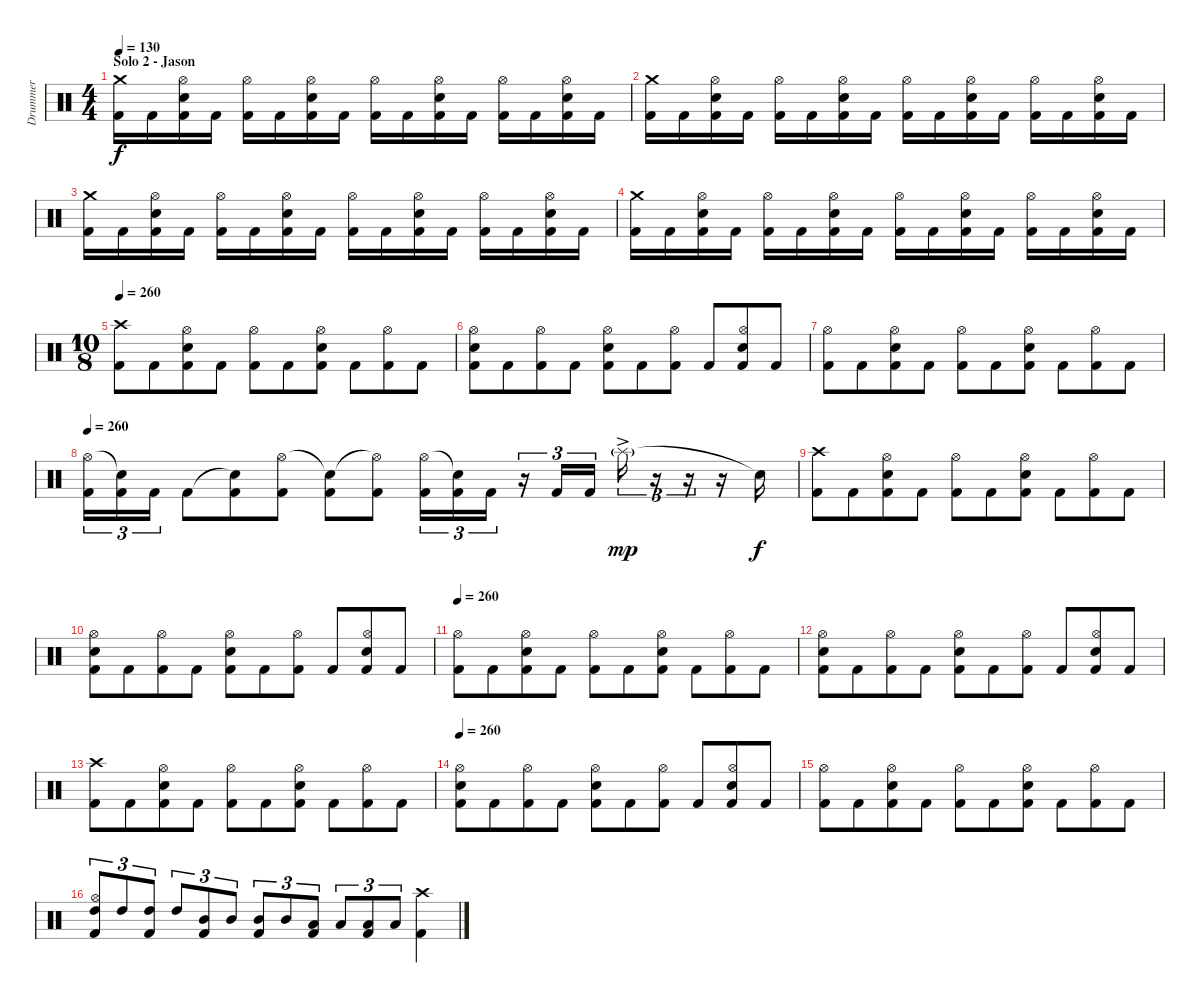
\track ("Drummer" "Drummer") {instrument percussion}
\staff {score}
\articulation defaults
\ts (4 4)
\section ("" "Solo 2 - Jason")
\tempo 130
\clef neutral
\ks c
("Crash medium (hit)" "Kick (hit) 2").16{dy f} "Kick (hit) 2".16 ("Hi-Hat (open)" "Snare (hit) 2" "Kick (hit) 2").16 "Kick (hit) 2".16 ("Hi-Hat (open)" "Kick (hit) 2").16 "Kick (hit) 2".16 ("Hi-Hat (open)" "Snare (hit) 2" "Kick (hit) 2").16 "Kick (hit) 2".16 ("Hi-Hat (open)" "Kick (hit) 2").16 "Kick (hit) 2".16 ("Hi-Hat (open)" "Snare (hit) 2" "Kick (hit) 2").16 "Kick (hit) 2".16 ("Hi-Hat (open)" "Kick (hit) 2").16 "Kick (hit) 2".16 ("Hi-Hat (open)" "Snare (hit) 2" "Kick (hit) 2").16 "Kick (hit) 2".16 |
("Crash medium (hit)" "Kick (hit) 2").16 "Kick (hit) 2".16 ("Hi-Hat (open)" "Snare (hit) 2" "Kick (hit) 2").16 "Kick (hit) 2".16 ("Hi-Hat (open)" "Kick (hit) 2").16 "Kick (hit) 2".16 ("Hi-Hat (open)" "Snare (hit) 2" "Kick (hit) 2").16 "Kick (hit) 2".16 ("Hi-Hat (open)" "Kick (hit) 2").16 "Kick (hit) 2".16 ("Hi-Hat (open)" "Snare (hit) 2" "Kick (hit) 2").16 "Kick (hit) 2".16 ("Hi-Hat (open)" "Kick (hit) 2").16 "Kick (hit) 2".16 ("Hi-Hat (open)" "Snare (hit) 2" "Kick (hit) 2").16 "Kick (hit) 2".16 |
("Crash medium (hit)" "Kick (hit) 2").16 "Kick (hit) 2".16 ("Hi-Hat (open)" "Snare (hit) 2" "Kick (hit) 2").16 "Kick (hit) 2".16 ("Hi-Hat (open)" "Kick (hit) 2").16 "Kick (hit) 2".16 ("Hi-Hat (open)" "Snare (hit) 2" "Kick (hit) 2").16 "Kick (hit) 2".16 ("Hi-Hat (open)" "Kick (hit) 2").16 "Kick (hit) 2".16 ("Hi-Hat (open)" "Snare (hit) 2" "Kick (hit) 2").16 "Kick (hit) 2".16 ("Hi-Hat (open)" "Kick (hit) 2").16 "Kick (hit) 2".16 ("Hi-Hat (open)" "Snare (hit) 2" "Kick (hit) 2").16 "Kick (hit) 2".16 |
("Crash medium (hit)" "Kick (hit) 2").16 "Kick (hit) 2".16 ("Hi-Hat (open)" "Snare (hit) 2" "Kick (hit) 2").16 "Kick (hit) 2".16 ("Hi-Hat (open)" "Kick (hit) 2").16 "Kick (hit) 2".16 ("Hi-Hat (open)" "Snare (hit) 2" "Kick (hit) 2").16 "Kick (hit) 2".16 ("Hi-Hat (open)" "Kick (hit) 2").16 "Kick (hit) 2".16 ("Hi-Hat (open)" "Snare (hit) 2" "Kick (hit) 2").16 "Kick (hit) 2".16 ("Hi-Hat (open)" "Kick (hit) 2").16 "Kick (hit) 2".16 ("Hi-Hat (open)" "Snare (hit) 2" "Kick (hit) 2").16 "Kick (hit) 2".16 |
\ts (10 8)
\tempo 260
("Crash high (hit)" "Kick (hit) 2").8 "Kick (hit) 2".8 ("Hi-Hat (open)" "Snare (hit) 2" "Kick (hit) 2").8 "Kick (hit) 2".8 ("Hi-Hat (open)" "Kick (hit) 2").8 "Kick (hit) 2".8 ("Hi-Hat (open)" "Snare (hit) 2" "Kick (hit) 2").8 "Kick (hit) 2".8 ("Hi-Hat (open)" "Kick (hit) 2").8 "Kick (hit) 2".8 |
("Hi-Hat (open)" "Snare (hit) 2" "Kick (hit) 2").8 "Kick (hit) 2".8 ("Hi-Hat (open)" "Kick (hit) 2").8 "Kick (hit) 2".8 ("Hi-Hat (open)" "Snare (hit) 2" "Kick (hit) 2").8 "Kick (hit) 2".8 ("Hi-Hat (open)" "Kick (hit) 2").8 "Kick (hit) 2".8 ("Hi-Hat (open)" "Snare (hit) 2" "Kick (hit) 2").8 "Kick (hit) 2".8 |
("Hi-Hat (open)" "Kick (hit) 2").8 "Kick (hit) 2".8 ("Hi-Hat (open)" "Snare (hit) 2" "Kick (hit) 2").8 "Kick (hit) 2".8 ("Hi-Hat (open)" "Kick (hit) 2").8 "Kick (hit) 2".8 ("Hi-Hat (open)" "Snare (hit) 2" "Kick (hit) 2").8 "Kick (hit) 2".8 ("Hi-Hat (open)" "Kick (hit) 2").8 "Kick (hit) 2".8 |
\tempo 260
("Hi-Hat (open)" "Kick (hit) 2").16{tu (3 2)} ("Snare (hit)"{t} "Kick (hit) 2").16{tu (3 2)} "Kick (hit) 2".16{tu (3 2)} "Kick (hit) 2".8 ("Snare (hit)"{t} "Kick (hit) 2").8 ("Hi-Hat (open)" "Kick (hit) 2").8 ("Snare (hit)"{t} "Kick (hit) 2").8 ("Hi-Hat (open)"{t} "Kick (hit) 2").8 ("Hi-Hat (open)" "Kick (hit) 2").16{tu (3 2)} ("Snare (hit)"{t} "Kick (hit) 2").16{tu (3 2)} "Kick (hit) 2".16{tu (3 2)} r.16{tu (3 2)} "Kick (hit) 2".16{tu (3 2)} "Kick (hit) 2".16{tu (3 2)} "Splash (hit)"{g ac}.16{tu (3 2) dy mp} r.16{tu (3 2)} r.16{tu (3 2)} r.16 "Snare (hit)"{t}.16{dy f} |
("Crash high (hit)" "Kick (hit) 2").8 "Kick (hit) 2".8 ("Hi-Hat (open)" "Snare (hit) 2" "Kick (hit) 2").8 "Kick (hit) 2".8 ("Hi-Hat (open)" "Kick (hit) 2").8 "Kick (hit) 2".8 ("Hi-Hat (open)" "Snare (hit) 2" "Kick (hit) 2").8 "Kick (hit) 2".8 ("Hi-Hat (open)" "Kick (hit) 2").8 "Kick (hit) 2".8 |
("Hi-Hat (open)" "Snare (hit) 2" "Kick (hit) 2").8 "Kick (hit) 2".8 ("Hi-Hat (open)" "Kick (hit) 2").8 "Kick (hit) 2".8 ("Hi-Hat (open)" "Snare (hit) 2" "Kick (hit) 2").8 "Kick (hit) 2".8 ("Hi-Hat (open)" "Kick (hit) 2").8 "Kick (hit) 2".8 ("Hi-Hat (open)" "Snare (hit) 2" "Kick (hit) 2").8 "Kick (hit) 2".8 |
\tempo 260
("Hi-Hat (open)" "Kick (hit) 2").8 "Kick (hit) 2".8 ("Hi-Hat (open)" "Snare (hit) 2" "Kick (hit) 2").8 "Kick (hit) 2".8 ("Hi-Hat (open)" "Kick (hit) 2").8 "Kick (hit) 2".8 ("Hi-Hat (open)" "Snare (hit) 2" "Kick (hit) 2").8 "Kick (hit) 2".8 ("Hi-Hat (open)" "Kick (hit) 2").8 "Kick (hit) 2".8 |
("Hi-Hat (open)" "Snare (hit) 2" "Kick (hit) 2").8 "Kick (hit) 2".8 ("Hi-Hat (open)" "Kick (hit) 2").8 "Kick (hit) 2".8 ("Hi-Hat (open)" "Snare (hit) 2" "Kick (hit) 2").8 "Kick (hit) 2".8 ("Hi-Hat (open)" "Kick (hit) 2").8 "Kick (hit) 2".8 ("Hi-Hat (open)" "Snare (hit) 2" "Kick (hit) 2").8 "Kick (hit) 2".8 |
("Crash high (hit)" "Kick (hit) 2").8 "Kick (hit) 2".8 ("Hi-Hat (open)" "Snare (hit) 2" "Kick (hit) 2").8 "Kick (hit) 2".8 ("Hi-Hat (open)" "Kick (hit) 2").8 "Kick (hit) 2".8 ("Hi-Hat (open)" "Snare (hit) 2" "Kick (hit) 2").8 "Kick (hit) 2".8 ("Hi-Hat (open)" "Kick (hit) 2").8 "Kick (hit) 2".8 |
\tempo 260
("Hi-Hat (open)" "Snare (hit) 2" "Kick (hit) 2").8 "Kick (hit) 2".8 ("Hi-Hat (open)" "Kick (hit) 2").8 "Kick (hit) 2".8 ("Hi-Hat (open)" "Snare (hit) 2" "Kick (hit) 2").8 "Kick (hit) 2".8 ("Hi-Hat (open)" "Kick (hit) 2").8 "Kick (hit) 2".8 ("Hi-Hat (open)" "Snare (hit) 2" "Kick (hit) 2").8 "Kick (hit) 2".8 |
("Hi-Hat (open)" "Kick (hit) 2").8 "Kick (hit) 2".8 ("Hi-Hat (open)" "Snare (hit) 2" "Kick (hit) 2").8 "Kick (hit) 2".8 ("Hi-Hat (open)" "Kick (hit) 2").8 "Kick (hit) 2".8 ("Hi-Hat (open)" "Snare (hit) 2" "Kick (hit) 2").8 "Kick (hit) 2".8 ("Hi-Hat (open)" "Kick (hit) 2").8 "Kick (hit) 2".8 |
("Hi-Hat (open)" "High Tom (hit)" "Kick (hit) 2").8{tu (3 2)} "High Tom (hit)".8{tu (3 2)} ("High Tom (hit)" "Kick (hit) 2").8{tu (3 2)} "High Tom (hit)".8{tu (3 2)} ("Mid Tom (hit)" "Kick (hit) 2").8{tu (3 2)} "Mid Tom (hit)".8{tu (3 2)} ("Mid Tom (hit)" "Kick (hit) 2").8{tu (3 2)} "Mid Tom (hit)".8{tu (3 2)} ("Low Tom (hit)" "Kick (hit) 2").8{tu (3 2)} "Low Tom (hit)".8{tu (3 2)} ("Low Tom (hit)" "Kick (hit) 2").8{tu (3 2)} "Low Tom (hit)".8{tu (3 2)} ("Crash high (hit)" "Kick (hit) 2").4
